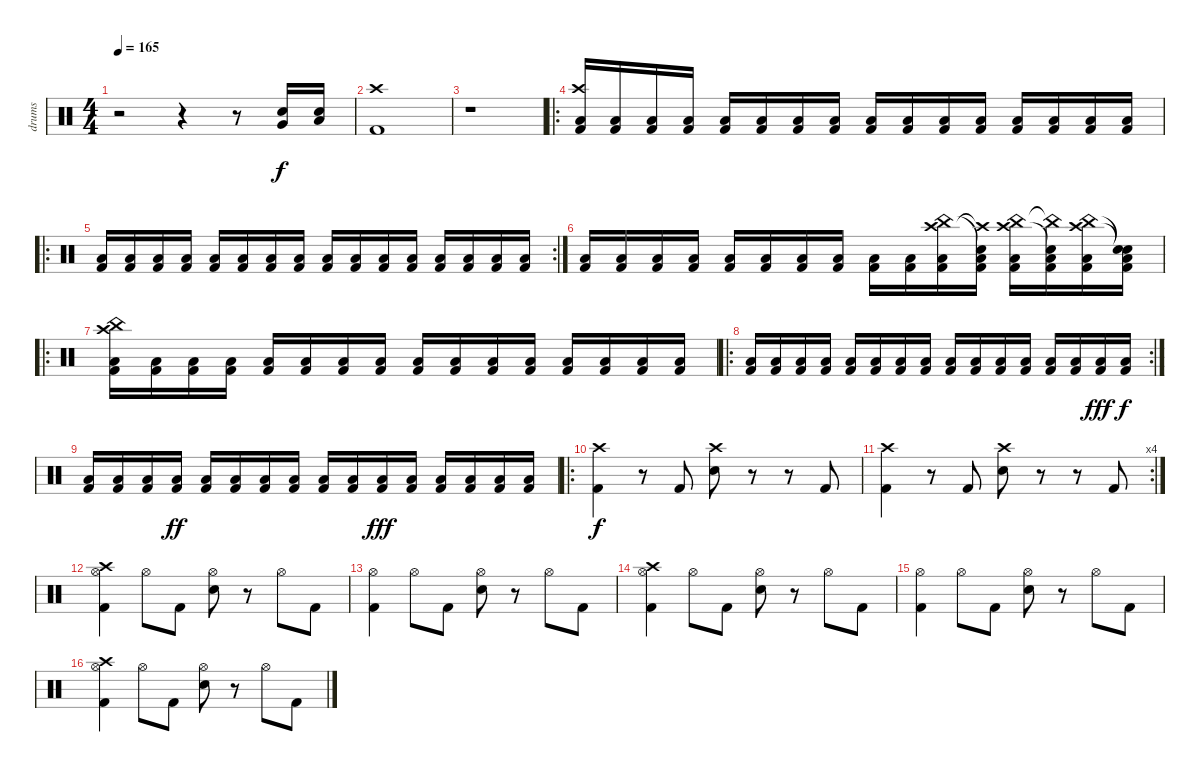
\track ("drums" "drums") {instrument percussion}
\staff {score}
\articulation defaults
\ts (4 4)
\tempo 165
\clef neutral
\ks c
r.2{dy f} r.4 r.8 ("Very Low Tom (hit)" "Electric Snare (hit)").16 ("Low Floor Tom (hit)" "Electric Snare (hit)").16 |
("Crash high (hit)" "Kick (hit) 2").1 |
r.1 |
\ro
("Crash high (hit)" "Low Floor Tom (hit)" "Kick (hit) 2").16 ("Low Floor Tom (hit)" "Kick (hit) 2").16 ("Low Floor Tom (hit)" "Kick (hit) 2").16 ("Low Floor Tom (hit)" "Kick (hit) 2").16 ("Low Floor Tom (hit)" "Kick (hit) 2").16 ("Low Floor Tom (hit)" "Kick (hit) 2").16 ("Low Floor Tom (hit)" "Kick (hit) 2").16 ("Low Floor Tom (hit)" "Kick (hit) 2").16 ("Low Floor Tom (hit)" "Kick (hit) 2").16 ("Low Floor Tom (hit)" "Kick (hit) 2").16 ("Low Floor Tom (hit)" "Kick (hit) 2").16 ("Low Floor Tom (hit)" "Kick (hit) 2").16 ("Low Floor Tom (hit)" "Kick (hit) 2").16 ("Low Floor Tom (hit)" "Kick (hit) 2").16 ("Low Floor Tom (hit)" "Kick (hit) 2").16 ("Low Floor Tom (hit)" "Kick (hit) 2").16 |
\ro
\rc 2
("Low Floor Tom (hit)" "Kick (hit) 2").16 ("Low Floor Tom (hit)" "Kick (hit) 2").16 ("Low Floor Tom (hit)" "Kick (hit) 2").16 ("Low Floor Tom (hit)" "Kick (hit) 2").16 ("Low Floor Tom (hit)" "Kick (hit) 2").16 ("Low Floor Tom (hit)" "Kick (hit) 2").16 ("Low Floor Tom (hit)" "Kick (hit) 2").16 ("Low Floor Tom (hit)" "Kick (hit) 2").16 ("Low Floor Tom (hit)" "Kick (hit) 2").16 ("Low Floor Tom (hit)" "Kick (hit) 2").16 ("Low Floor Tom (hit)" "Kick (hit) 2").16 ("Low Floor Tom (hit)" "Kick (hit) 2").16 ("Low Floor Tom (hit)" "Kick (hit) 2").16 ("Low Floor Tom (hit)" "Kick (hit) 2").16 ("Low Floor Tom (hit)" "Kick (hit) 2").16 ("Low Floor Tom (hit)" "Kick (hit) 2").16 |
("Low Floor Tom (hit)" "Kick (hit) 2").16 ("Low Floor Tom (hit)" "Kick (hit) 2").16 ("Low Floor Tom (hit)" "Kick (hit) 2").16 ("Low Floor Tom (hit)" "Kick (hit) 2").16 ("Low Floor Tom (hit)" "Kick (hit) 2").16 ("Low Floor Tom (hit)" "Kick (hit) 2").16 ("Low Floor Tom (hit)" "Kick (hit) 2").16 ("Low Floor Tom (hit)" "Kick (hit) 2").16 ("Low Floor Tom (hit)" "Kick (hit) 2").16 ("Low Floor Tom (hit)" "Kick (hit) 2").16 ("Crash high (hit)" "China (hit)" "Low Floor Tom (hit)" "Kick (hit) 2").16 ("Crash high (hit)"{t} "Snare (hit)"{t} "Low Floor Tom (hit)" "Kick (hit) 2").16 ("Crash high (hit)" "China (hit)" "Low Floor Tom (hit)" "Kick (hit) 2").16 ("Snare (hit)"{t} "China (hit)"{t} "Low Floor Tom (hit)" "Kick (hit) 2").16 ("Crash high (hit)" "China (hit)" "Low Floor Tom (hit)" "Kick (hit) 2").16 ("Snare (hit)"{t} "Snare (hit)"{t} "Low Floor Tom (hit)" "Kick (hit) 2").16 |
\ro
("Crash high (hit)" "China (hit)" "Low Floor Tom (hit)" "Kick (hit) 2").16 ("Low Floor Tom (hit)" "Kick (hit) 2").16 ("Low Floor Tom (hit)" "Kick (hit) 2").16 ("Low Floor Tom (hit)" "Kick (hit) 2").16 ("Low Floor Tom (hit)" "Kick (hit) 2").16 ("Low Floor Tom (hit)" "Kick (hit) 2").16 ("Low Floor Tom (hit)" "Kick (hit) 2").16 ("Low Floor Tom (hit)" "Kick (hit) 2").16 ("Low Floor Tom (hit)" "Kick (hit) 2").16 ("Low Floor Tom (hit)" "Kick (hit) 2").16 ("Low Floor Tom (hit)" "Kick (hit) 2").16 ("Low Floor Tom (hit)" "Kick (hit) 2").16 ("Low Floor Tom (hit)" "Kick (hit) 2").16 ("Low Floor Tom (hit)" "Kick (hit) 2").16 ("Low Floor Tom (hit)" "Kick (hit) 2").16 ("Low Floor Tom (hit)" "Kick (hit) 2").16 |
\ro
\rc 2
("Low Floor Tom (hit)" "Kick (hit) 2").16 ("Low Floor Tom (hit)" "Kick (hit) 2").16 ("Low Floor Tom (hit)" "Kick (hit) 2").16 ("Low Floor Tom (hit)" "Kick (hit) 2").16 ("Low Floor Tom (hit)" "Kick (hit) 2").16 ("Low Floor Tom (hit)" "Kick (hit) 2").16 ("Low Floor Tom (hit)" "Kick (hit) 2").16 ("Low Floor Tom (hit)" "Kick (hit) 2").16 ("Low Floor Tom (hit)" "Kick (hit) 2").16 ("Low Floor Tom (hit)" "Kick (hit) 2").16 ("Low Floor Tom (hit)" "Kick (hit) 2").16 ("Low Floor Tom (hit)" "Kick (hit) 2").16 ("Low Floor Tom (hit)" "Kick (hit) 2").16 ("Low Floor Tom (hit)" "Kick (hit) 2").16 ("Low Floor Tom (hit)" "Kick (hit) 2").16{dy fff} ("Low Floor Tom (hit)" "Kick (hit) 2").16{dy f} |
("Low Floor Tom (hit)" "Kick (hit) 2").16 ("Low Floor Tom (hit)" "Kick (hit) 2").16 ("Low Floor Tom (hit)" "Kick (hit) 2").16 ("Low Floor Tom (hit)" "Kick (hit) 2").16{dy ff} ("Low Floor Tom (hit)" "Kick (hit) 2").16 ("Low Floor Tom (hit)" "Kick (hit) 2").16 ("Low Floor Tom (hit)" "Kick (hit) 2").16 ("Low Floor Tom (hit)" "Kick (hit) 2").16 ("Low Floor Tom (hit)" "Kick (hit) 2").16 ("Low Floor Tom (hit)" "Kick (hit) 2").16 ("Low Floor Tom (hit)" "Kick (hit) 2").16{dy fff} ("Low Floor Tom (hit)" "Kick (hit) 2").16 ("Low Floor Tom (hit)" "Kick (hit) 2").16 ("Low Floor Tom (hit)" "Kick (hit) 2").16 ("Low Floor Tom (hit)" "Kick (hit) 2").16 ("Low Floor Tom (hit)" "Kick (hit) 2").16 |
\ro
("Crash high (hit)" "Kick (hit) 2").4{dy f} r.8 "Kick (hit) 2".8 ("Crash high (hit)" "Electric Snare (hit)").8 r.8 r.8 "Kick (hit) 2".8 |
\rc 4
("Crash high (hit)" "Kick (hit) 2").4 r.8 "Kick (hit) 2".8 ("Crash high (hit)" "Electric Snare (hit)").8 r.8 r.8 "Kick (hit) 2".8 |
("Crash high (hit)" "Hi-Hat (open)" "Kick (hit) 2").4 "Hi-Hat (open)".8 "Kick (hit) 2".8 ("Hi-Hat (open)" "Electric Snare (hit)").8 r.8 "Hi-Hat (open)".8 "Kick (hit) 2".8 |
("Hi-Hat (open)" "Kick (hit) 2").4 "Hi-Hat (open)".8 "Kick (hit) 2".8 ("Hi-Hat (open)" "Electric Snare (hit)").8 r.8 "Hi-Hat (open)".8 "Kick (hit) 2".8 |
("Crash high (hit)" "Hi-Hat (open)" "Kick (hit) 2").4 "Hi-Hat (open)".8 "Kick (hit) 2".8 ("Hi-Hat (open)" "Electric Snare (hit)").8 r.8 "Hi-Hat (open)".8 "Kick (hit) 2".8 |
("Hi-Hat (open)" "Kick (hit) 2").4 "Hi-Hat (open)".8 "Kick (hit) 2".8 ("Hi-Hat (open)" "Electric Snare (hit)").8 r.8 "Hi-Hat (open)".8 "Kick (hit) 2".8 |
("Crash high (hit)" "Hi-Hat (open)" "Kick (hit) 2").4 "Hi-Hat (open)".8 "Kick (hit) 2".8 ("Hi-Hat (open)" "Electric Snare (hit)").8 r.8 "Hi-Hat (open)".8 "Kick (hit) 2".8
